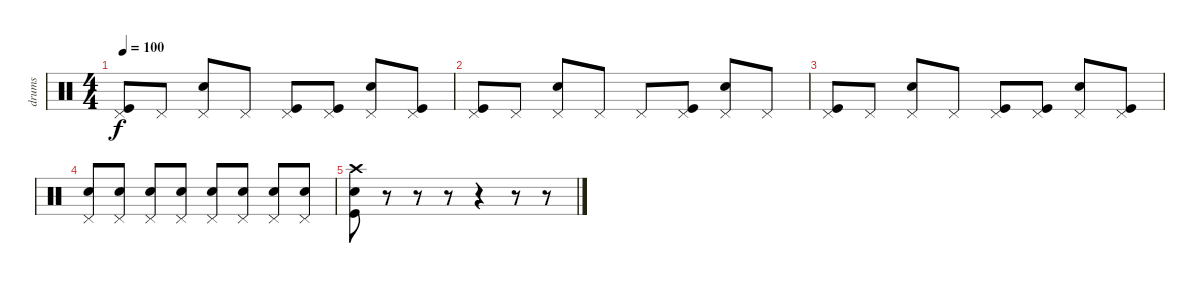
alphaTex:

\track ("drums" "drums") {instrument percussion}
\staff {score}
\articulation defaults
\ts (4 4)
\tempo 100
\clef neutral
\ks c
("Kick (hit)" "Pedal Hi-Hat (hit)").8{dy f} "Pedal Hi-Hat (hit)".8 ("Electric Snare (hit)" "Pedal Hi-Hat (hit)").8 "Pedal Hi-Hat (hit)".8 ("Kick (hit)" "Pedal Hi-Hat (hit)").8 ("Kick (hit)" "Pedal Hi-Hat (hit)").8 ("Electric Snare (hit)" "Pedal Hi-Hat (hit)").8 ("Kick (hit)" "Pedal Hi-Hat (hit)").8 |
("Kick (hit)" "Pedal Hi-Hat (hit)").8 "Pedal Hi-Hat (hit)".8 ("Electric Snare (hit)" "Pedal Hi-Hat (hit)").8 "Pedal Hi-Hat (hit)".8 "Pedal Hi-Hat (hit)".8 ("Kick (hit)" "Pedal Hi-Hat (hit)").8 ("Electric Snare (hit)" "Pedal Hi-Hat (hit)").8 "Pedal Hi-Hat (hit)".8 |
("Kick (hit)" "Pedal Hi-Hat (hit)").8 "Pedal Hi-Hat (hit)".8 ("Electric Snare (hit)" "Pedal Hi-Hat (hit)").8 "Pedal Hi-Hat (hit)".8 ("Kick (hit)" "Pedal Hi-Hat (hit)").8 ("Kick (hit)" "Pedal Hi-Hat (hit)").8 ("Electric Snare (hit)" "Pedal Hi-Hat (hit)").8 ("Kick (hit)" "Pedal Hi-Hat (hit)").8 |
("Electric Snare (hit)" "Pedal Hi-Hat (hit)").8 ("Electric Snare (hit)" "Pedal Hi-Hat (hit)").8 ("Electric Snare (hit)" "Pedal Hi-Hat (hit)").8 ("Electric Snare (hit)" "Pedal Hi-Hat (hit)").8 ("Electric Snare (hit)" "Pedal Hi-Hat (hit)").8 ("Electric Snare (hit)" "Pedal Hi-Hat (hit)").8 ("Electric Snare (hit)" "Pedal Hi-Hat (hit)").8 ("Electric Snare (hit)" "Pedal Hi-Hat (hit)").8 |
("Kick (hit)" "Crash high (hit)" "Electric Snare (hit)").8 r.8 r.8 r.8 r.4 r.8 r.8
